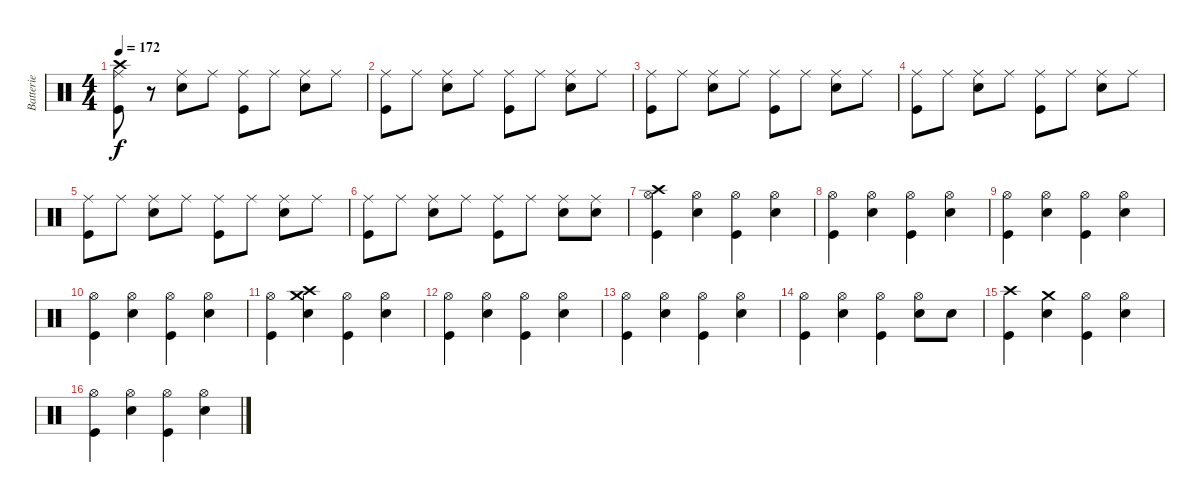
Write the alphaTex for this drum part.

\track ("Batterie" "Batterie") {instrument percussion}
\staff {score}
\articulation defaults
\ts (4 4)
\section ("" "")
\tempo 172
\clef neutral
\ks c
("Ride (middle)" "Crash high (hit)" "Kick (hit)").8{dy f} r.8 ("Ride (middle)" "Snare (hit) 2").8 "Ride (middle)".8 ("Ride (middle)" "Kick (hit)").8 "Ride (middle)".8 ("Ride (middle)" "Snare (hit) 2").8 "Ride (middle)".8 |
("Ride (middle)" "Kick (hit)").8 "Ride (middle)".8 ("Ride (middle)" "Snare (hit) 2").8 "Ride (middle)".8 ("Ride (middle)" "Kick (hit)").8 "Ride (middle)".8 ("Ride (middle)" "Snare (hit) 2").8 "Ride (middle)".8 |
("Ride (middle)" "Kick (hit)").8 "Ride (middle)".8 ("Ride (middle)" "Snare (hit) 2").8 "Ride (middle)".8 ("Ride (middle)" "Kick (hit)").8 "Ride (middle)".8 ("Ride (middle)" "Snare (hit) 2").8 "Ride (middle)".8 |
("Ride (middle)" "Kick (hit)").8 "Ride (middle)".8 ("Ride (middle)" "Snare (hit) 2").8 "Ride (middle)".8 ("Ride (middle)" "Kick (hit)").8 "Ride (middle)".8 ("Ride (middle)" "Snare (hit) 2").8 "Ride (middle)".8 |
("Ride (middle)" "Kick (hit)").8 "Ride (middle)".8 ("Ride (middle)" "Snare (hit) 2").8 "Ride (middle)".8 ("Ride (middle)" "Kick (hit)").8 "Ride (middle)".8 ("Ride (middle)" "Snare (hit) 2").8 "Ride (middle)".8 |
("Ride (middle)" "Kick (hit)").8 "Ride (middle)".8 ("Ride (middle)" "Snare (hit) 2").8 "Ride (middle)".8 ("Ride (middle)" "Kick (hit)").8 "Ride (middle)".8 ("Ride (middle)" "Snare (hit) 2").8 ("Ride (middle)" "Snare (hit) 2").8 |
\section ("" "")
("Hi-Hat (open)" "Crash high (hit)" "Kick (hit)").4 ("Hi-Hat (open)" "Snare (hit) 2").4 ("Hi-Hat (open)" "Kick (hit)").4 ("Hi-Hat (open)" "Snare (hit) 2").4 |
("Hi-Hat (open)" "Kick (hit)").4 ("Hi-Hat (open)" "Snare (hit) 2").4 ("Hi-Hat (open)" "Kick (hit)").4 ("Hi-Hat (open)" "Snare (hit) 2").4 |
("Hi-Hat (open)" "Kick (hit)").4 ("Hi-Hat (open)" "Snare (hit) 2").4 ("Hi-Hat (open)" "Kick (hit)").4 ("Hi-Hat (open)" "Snare (hit) 2").4 |
("Hi-Hat (open)" "Kick (hit)").4 ("Hi-Hat (open)" "Snare (hit) 2").4 ("Hi-Hat (open)" "Kick (hit)").4 ("Hi-Hat (open)" "Snare (hit) 2").4 |
("Hi-Hat (open)" "Kick (hit)").4 ("Crash high (hit)" "Crash medium (hit)" "Snare (hit) 2").4 ("Hi-Hat (open)" "Kick (hit)").4 ("Hi-Hat (open)" "Snare (hit) 2").4 |
("Hi-Hat (open)" "Kick (hit)").4 ("Hi-Hat (open)" "Snare (hit) 2").4 ("Hi-Hat (open)" "Kick (hit)").4 ("Hi-Hat (open)" "Snare (hit) 2").4 |
("Hi-Hat (open)" "Kick (hit)").4 ("Hi-Hat (open)" "Snare (hit) 2").4 ("Hi-Hat (open)" "Kick (hit)").4 ("Hi-Hat (open)" "Snare (hit) 2").4 |
("Hi-Hat (open)" "Kick (hit)").4 ("Hi-Hat (open)" "Snare (hit) 2").4 ("Hi-Hat (open)" "Kick (hit)").4 ("Hi-Hat (open)" "Snare (hit) 2").8 "Snare (hit) 2".8 |
\section ("" "")
("Crash high (hit)" "Kick (hit)").4 ("Crash medium (hit)" "Snare (hit) 2").4 ("Hi-Hat (open)" "Kick (hit)").4 ("Hi-Hat (open)" "Snare (hit) 2").4 |
("Hi-Hat (open)" "Kick (hit)").4 ("Hi-Hat (open)" "Snare (hit) 2").4 ("Hi-Hat (open)" "Kick (hit)").4 ("Hi-Hat (open)" "Snare (hit) 2").4
